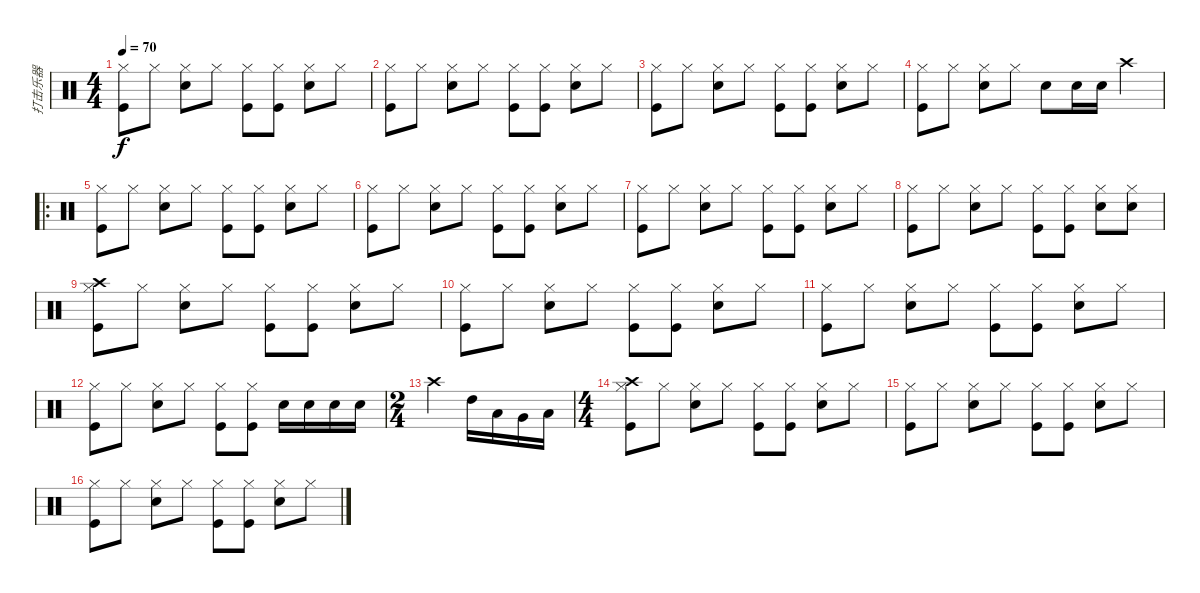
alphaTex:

\track ("打击乐器" "打击乐器") {instrument percussion}
\staff {score}
\articulation defaults
\ts (4 4)
\tempo 70
\clef neutral
\ks c
("Hi-Hat (closed)" "Kick (hit)").8{dy f} "Hi-Hat (closed)".8 ("Hi-Hat (closed)" "Electric Snare (hit)").8 "Hi-Hat (closed)".8 ("Hi-Hat (closed)" "Kick (hit)").8 ("Hi-Hat (closed)" "Kick (hit)").8 ("Hi-Hat (closed)" "Electric Snare (hit)").8 "Hi-Hat (closed)".8 |
("Hi-Hat (closed)" "Kick (hit)").8 "Hi-Hat (closed)".8 ("Hi-Hat (closed)" "Electric Snare (hit)").8 "Hi-Hat (closed)".8 ("Hi-Hat (closed)" "Kick (hit)").8 ("Hi-Hat (closed)" "Kick (hit)").8 ("Hi-Hat (closed)" "Electric Snare (hit)").8 "Hi-Hat (closed)".8 |
("Hi-Hat (closed)" "Kick (hit)").8 "Hi-Hat (closed)".8 ("Hi-Hat (closed)" "Electric Snare (hit)").8 "Hi-Hat (closed)".8 ("Hi-Hat (closed)" "Kick (hit)").8 ("Hi-Hat (closed)" "Kick (hit)").8 ("Hi-Hat (closed)" "Electric Snare (hit)").8 "Hi-Hat (closed)".8 |
("Hi-Hat (closed)" "Kick (hit)").8 "Hi-Hat (closed)".8 ("Hi-Hat (closed)" "Electric Snare (hit)").8 "Hi-Hat (closed)".8 "Electric Snare (hit)".8 "Electric Snare (hit)".16 "Electric Snare (hit)".16 "Crash high (hit)".4 |
\ro
("Hi-Hat (closed)" "Kick (hit)").8 "Hi-Hat (closed)".8 ("Hi-Hat (closed)" "Electric Snare (hit)").8 "Hi-Hat (closed)".8 ("Hi-Hat (closed)" "Kick (hit)").8 ("Hi-Hat (closed)" "Kick (hit)").8 ("Hi-Hat (closed)" "Electric Snare (hit)").8 "Hi-Hat (closed)".8 |
("Hi-Hat (closed)" "Kick (hit)").8 "Hi-Hat (closed)".8 ("Hi-Hat (closed)" "Electric Snare (hit)").8 "Hi-Hat (closed)".8 ("Hi-Hat (closed)" "Kick (hit)").8 ("Hi-Hat (closed)" "Kick (hit)").8 ("Hi-Hat (closed)" "Electric Snare (hit)").8 "Hi-Hat (closed)".8 |
("Hi-Hat (closed)" "Kick (hit)").8 "Hi-Hat (closed)".8 ("Hi-Hat (closed)" "Electric Snare (hit)").8 "Hi-Hat (closed)".8 ("Hi-Hat (closed)" "Kick (hit)").8 ("Hi-Hat (closed)" "Kick (hit)").8 ("Hi-Hat (closed)" "Electric Snare (hit)").8 "Hi-Hat (closed)".8 |
("Hi-Hat (closed)" "Kick (hit)").8 "Hi-Hat (closed)".8 ("Hi-Hat (closed)" "Electric Snare (hit)").8 "Hi-Hat (closed)".8 ("Hi-Hat (closed)" "Kick (hit)").8 ("Hi-Hat (closed)" "Kick (hit)").8 ("Hi-Hat (closed)" "Electric Snare (hit)").8 ("Hi-Hat (closed)" "Electric Snare (hit)").8 |
("Hi-Hat (closed)" "Kick (hit)" "Crash high (hit)").8 "Hi-Hat (closed)".8 ("Hi-Hat (closed)" "Electric Snare (hit)").8 "Hi-Hat (closed)".8 ("Hi-Hat (closed)" "Kick (hit)").8 ("Hi-Hat (closed)" "Kick (hit)").8 ("Hi-Hat (closed)" "Electric Snare (hit)").8 "Hi-Hat (closed)".8 |
("Hi-Hat (closed)" "Kick (hit)").8 "Hi-Hat (closed)".8 ("Hi-Hat (closed)" "Electric Snare (hit)").8 "Hi-Hat (closed)".8 ("Hi-Hat (closed)" "Kick (hit)").8 ("Hi-Hat (closed)" "Kick (hit)").8 ("Hi-Hat (closed)" "Electric Snare (hit)").8 "Hi-Hat (closed)".8 |
("Hi-Hat (closed)" "Kick (hit)").8 "Hi-Hat (closed)".8 ("Hi-Hat (closed)" "Electric Snare (hit)").8 "Hi-Hat (closed)".8 ("Hi-Hat (closed)" "Kick (hit)").8 ("Hi-Hat (closed)" "Kick (hit)").8 ("Hi-Hat (closed)" "Electric Snare (hit)").8 "Hi-Hat (closed)".8 |
("Hi-Hat (closed)" "Kick (hit)").8 "Hi-Hat (closed)".8 ("Hi-Hat (closed)" "Electric Snare (hit)").8 "Hi-Hat (closed)".8 ("Hi-Hat (closed)" "Kick (hit)").8 ("Hi-Hat (closed)" "Kick (hit)").8 "Electric Snare (hit)".16 "Electric Snare (hit)".16 "Electric Snare (hit)".16 "Electric Snare (hit)".16 |
\ts (2 4)
"Crash high (hit)".4 "High Tom (hit)".16 "Low Tom (hit)".16 "Very Low Tom (hit)".16 "Low Floor Tom (hit)".16 |
\ts (4 4)
("Hi-Hat (closed)" "Kick (hit)" "Crash high (hit)").8 "Hi-Hat (closed)".8 ("Hi-Hat (closed)" "Electric Snare (hit)").8 "Hi-Hat (closed)".8 ("Hi-Hat (closed)" "Kick (hit)").8 ("Hi-Hat (closed)" "Kick (hit)").8 ("Hi-Hat (closed)" "Electric Snare (hit)").8 "Hi-Hat (closed)".8 |
("Hi-Hat (closed)" "Kick (hit)").8 "Hi-Hat (closed)".8 ("Hi-Hat (closed)" "Electric Snare (hit)").8 "Hi-Hat (closed)".8 ("Hi-Hat (closed)" "Kick (hit)").8 ("Hi-Hat (closed)" "Kick (hit)").8 ("Hi-Hat (closed)" "Electric Snare (hit)").8 "Hi-Hat (closed)".8 |
("Hi-Hat (closed)" "Kick (hit)").8 "Hi-Hat (closed)".8 ("Hi-Hat (closed)" "Electric Snare (hit)").8 "Hi-Hat (closed)".8 ("Hi-Hat (closed)" "Kick (hit)").8 ("Hi-Hat (closed)" "Kick (hit)").8 ("Hi-Hat (closed)" "Electric Snare (hit)").8 "Hi-Hat (closed)".8
